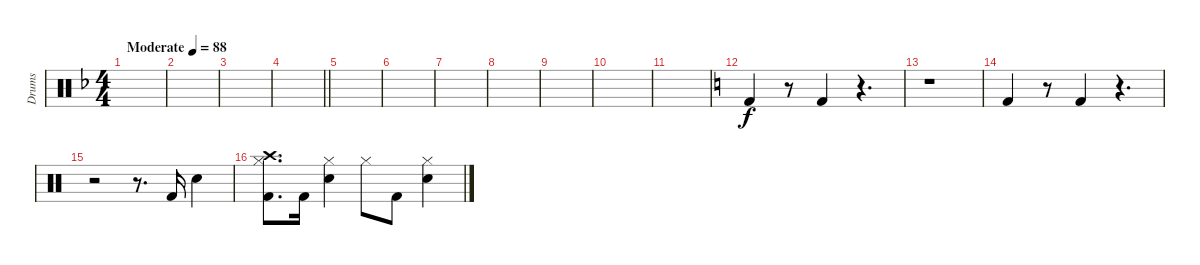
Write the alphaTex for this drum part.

\track ("Drums" "Drums") {instrument percussion}
\staff {score}
\articulation defaults
\ts (4 4)
\tempo (88 "Moderate")
\clef neutral
\ks f
|
|
|
\barLineRight lightlight
|
|
|
|
|
|
|
|
\ks c "Kick (hit) 2".4
r.8 "Kick (hit) 2".4 r.4{d} |
r.1 |
"Kick (hit) 2".4 r.8 "Kick (hit) 2".4 r.4{d} |
r.2 r.8{d} "Kick (hit) 2".16 "Snare (hit) 2".4 |
("Hi-Hat (closed)" "Kick (hit) 2" "Crash high (hit)").8{d} "Kick (hit) 2".16 ("Snare (hit) 2" "Hi-Hat (closed)").4 "Hi-Hat (closed)".8 "Kick (hit) 2".8 ("Snare (hit) 2" "Hi-Hat (closed)").4
